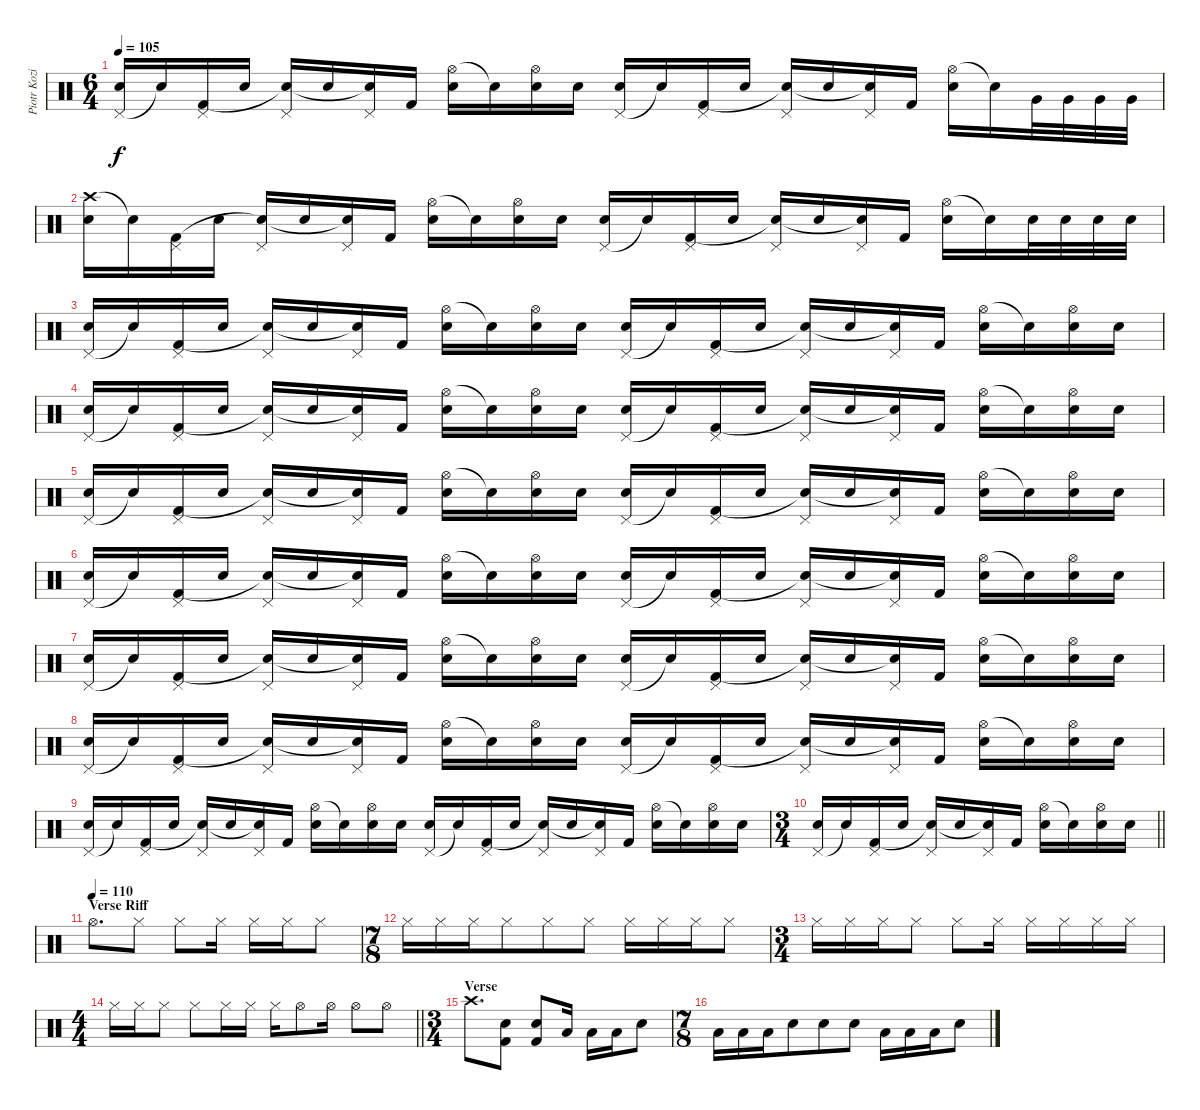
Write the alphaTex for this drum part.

\track ("Piotr Kozieradzki" "Piotr Kozi") {instrument percussion}
\staff {score}
\articulation defaults
\ts (6 4)
\tempo 105
\clef neutral
\ks c
("Pedal Hi-Hat (hit)" "Electric Snare (hit)").16{dy f} "Snare (hit)"{t}.16 ("Pedal Hi-Hat (hit)" "Kick (hit) 2").16 "Electric Snare (hit)".16 ("Pedal Hi-Hat (hit)" "Snare (hit)"{t}).16 "Electric Snare (hit)".16 ("Pedal Hi-Hat (hit)" "Snare (hit)"{t}).16 "Kick (hit) 2".16 ("Hi-Hat (open)" "Electric Snare (hit)").16 "Snare (hit)"{t}.16 ("Hi-Hat (open)" "Electric Snare (hit)").16 "Electric Snare (hit)".16 ("Pedal Hi-Hat (hit)" "Electric Snare (hit)").16 "Snare (hit)"{t}.16 ("Pedal Hi-Hat (hit)" "Kick (hit) 2").16 "Electric Snare (hit)".16 ("Pedal Hi-Hat (hit)" "Snare (hit)"{t}).16 "Electric Snare (hit)".16 ("Pedal Hi-Hat (hit)" "Snare (hit)"{t}).16 "Kick (hit) 2".16 ("Hi-Hat (open)" "Electric Snare (hit)").16 "Snare (hit)"{t}.16 "Very Low Tom (hit)".32 "Very Low Tom (hit)".32 "Very Low Tom (hit)".32 "Very Low Tom (hit)".32 |
("Crash high (hit)" "Electric Snare (hit)").16 "Snare (hit)"{t}.16 ("Pedal Hi-Hat (hit)" "Kick (hit) 2").16 "Electric Snare (hit)".16 ("Pedal Hi-Hat (hit)" "Snare (hit)"{t}).16 "Electric Snare (hit)".16 ("Pedal Hi-Hat (hit)" "Snare (hit)"{t}).16 "Kick (hit) 2".16 ("Hi-Hat (open)" "Electric Snare (hit)").16 "Snare (hit)"{t}.16 ("Hi-Hat (open)" "Electric Snare (hit)").16 "Electric Snare (hit)".16 ("Pedal Hi-Hat (hit)" "Electric Snare (hit)").16 "Snare (hit)"{t}.16 ("Pedal Hi-Hat (hit)" "Kick (hit) 2").16 "Electric Snare (hit)".16 ("Pedal Hi-Hat (hit)" "Snare (hit)"{t}).16 "Electric Snare (hit)".16 ("Pedal Hi-Hat (hit)" "Snare (hit)"{t}).16 "Kick (hit) 2".16 ("Hi-Hat (open)" "Electric Snare (hit)").16 "Snare (hit)"{t}.16 "Electric Snare (hit)".32 "Electric Snare (hit)".32 "Electric Snare (hit)".32 "Electric Snare (hit)".32 |
("Pedal Hi-Hat (hit)" "Electric Snare (hit)").16 "Snare (hit)"{t}.16 ("Pedal Hi-Hat (hit)" "Kick (hit) 2").16 "Electric Snare (hit)".16 ("Pedal Hi-Hat (hit)" "Snare (hit)"{t}).16 "Electric Snare (hit)".16 ("Pedal Hi-Hat (hit)" "Snare (hit)"{t}).16 "Kick (hit) 2".16 ("Hi-Hat (open)" "Electric Snare (hit)").16 "Snare (hit)"{t}.16 ("Hi-Hat (open)" "Electric Snare (hit)").16 "Electric Snare (hit)".16 ("Pedal Hi-Hat (hit)" "Electric Snare (hit)").16 "Snare (hit)"{t}.16 ("Pedal Hi-Hat (hit)" "Kick (hit) 2").16 "Electric Snare (hit)".16 ("Pedal Hi-Hat (hit)" "Snare (hit)"{t}).16 "Electric Snare (hit)".16 ("Pedal Hi-Hat (hit)" "Snare (hit)"{t}).16 "Kick (hit) 2".16 ("Hi-Hat (open)" "Electric Snare (hit)").16 "Snare (hit)"{t}.16 ("Hi-Hat (open)" "Electric Snare (hit)").16 "Electric Snare (hit)".16 |
("Pedal Hi-Hat (hit)" "Electric Snare (hit)").16 "Snare (hit)"{t}.16 ("Pedal Hi-Hat (hit)" "Kick (hit) 2").16 "Electric Snare (hit)".16 ("Pedal Hi-Hat (hit)" "Snare (hit)"{t}).16 "Electric Snare (hit)".16 ("Pedal Hi-Hat (hit)" "Snare (hit)"{t}).16 "Kick (hit) 2".16 ("Hi-Hat (open)" "Electric Snare (hit)").16 "Snare (hit)"{t}.16 ("Hi-Hat (open)" "Electric Snare (hit)").16 "Electric Snare (hit)".16 ("Pedal Hi-Hat (hit)" "Electric Snare (hit)").16 "Snare (hit)"{t}.16 ("Pedal Hi-Hat (hit)" "Kick (hit) 2").16 "Electric Snare (hit)".16 ("Pedal Hi-Hat (hit)" "Snare (hit)"{t}).16 "Electric Snare (hit)".16 ("Pedal Hi-Hat (hit)" "Snare (hit)"{t}).16 "Kick (hit) 2".16 ("Hi-Hat (open)" "Electric Snare (hit)").16 "Snare (hit)"{t}.16 ("Hi-Hat (open)" "Electric Snare (hit)").16 "Electric Snare (hit)".16 |
("Pedal Hi-Hat (hit)" "Electric Snare (hit)").16 "Snare (hit)"{t}.16 ("Pedal Hi-Hat (hit)" "Kick (hit) 2").16 "Electric Snare (hit)".16 ("Pedal Hi-Hat (hit)" "Snare (hit)"{t}).16 "Electric Snare (hit)".16 ("Pedal Hi-Hat (hit)" "Snare (hit)"{t}).16 "Kick (hit) 2".16 ("Hi-Hat (open)" "Electric Snare (hit)").16 "Snare (hit)"{t}.16 ("Hi-Hat (open)" "Electric Snare (hit)").16 "Electric Snare (hit)".16 ("Pedal Hi-Hat (hit)" "Electric Snare (hit)").16 "Snare (hit)"{t}.16 ("Pedal Hi-Hat (hit)" "Kick (hit) 2").16 "Electric Snare (hit)".16 ("Pedal Hi-Hat (hit)" "Snare (hit)"{t}).16 "Electric Snare (hit)".16 ("Pedal Hi-Hat (hit)" "Snare (hit)"{t}).16 "Kick (hit) 2".16 ("Hi-Hat (open)" "Electric Snare (hit)").16 "Snare (hit)"{t}.16 ("Hi-Hat (open)" "Electric Snare (hit)").16 "Electric Snare (hit)".16 |
("Pedal Hi-Hat (hit)" "Electric Snare (hit)").16 "Snare (hit)"{t}.16 ("Pedal Hi-Hat (hit)" "Kick (hit) 2").16 "Electric Snare (hit)".16 ("Pedal Hi-Hat (hit)" "Snare (hit)"{t}).16 "Electric Snare (hit)".16 ("Pedal Hi-Hat (hit)" "Snare (hit)"{t}).16 "Kick (hit) 2".16 ("Hi-Hat (open)" "Electric Snare (hit)").16 "Snare (hit)"{t}.16 ("Hi-Hat (open)" "Electric Snare (hit)").16 "Electric Snare (hit)".16 ("Pedal Hi-Hat (hit)" "Electric Snare (hit)").16 "Snare (hit)"{t}.16 ("Pedal Hi-Hat (hit)" "Kick (hit) 2").16 "Electric Snare (hit)".16 ("Pedal Hi-Hat (hit)" "Snare (hit)"{t}).16 "Electric Snare (hit)".16 ("Pedal Hi-Hat (hit)" "Snare (hit)"{t}).16 "Kick (hit) 2".16 ("Hi-Hat (open)" "Electric Snare (hit)").16 "Snare (hit)"{t}.16 ("Hi-Hat (open)" "Electric Snare (hit)").16 "Electric Snare (hit)".16 |
("Pedal Hi-Hat (hit)" "Electric Snare (hit)").16 "Snare (hit)"{t}.16 ("Pedal Hi-Hat (hit)" "Kick (hit) 2").16 "Electric Snare (hit)".16 ("Pedal Hi-Hat (hit)" "Snare (hit)"{t}).16 "Electric Snare (hit)".16 ("Pedal Hi-Hat (hit)" "Snare (hit)"{t}).16 "Kick (hit) 2".16 ("Hi-Hat (open)" "Electric Snare (hit)").16 "Snare (hit)"{t}.16 ("Hi-Hat (open)" "Electric Snare (hit)").16 "Electric Snare (hit)".16 ("Pedal Hi-Hat (hit)" "Electric Snare (hit)").16 "Snare (hit)"{t}.16 ("Pedal Hi-Hat (hit)" "Kick (hit) 2").16 "Electric Snare (hit)".16 ("Pedal Hi-Hat (hit)" "Snare (hit)"{t}).16 "Electric Snare (hit)".16 ("Pedal Hi-Hat (hit)" "Snare (hit)"{t}).16 "Kick (hit) 2".16 ("Hi-Hat (open)" "Electric Snare (hit)").16 "Snare (hit)"{t}.16 ("Hi-Hat (open)" "Electric Snare (hit)").16 "Electric Snare (hit)".16 |
("Pedal Hi-Hat (hit)" "Electric Snare (hit)").16 "Snare (hit)"{t}.16 ("Pedal Hi-Hat (hit)" "Kick (hit) 2").16 "Electric Snare (hit)".16 ("Pedal Hi-Hat (hit)" "Snare (hit)"{t}).16 "Electric Snare (hit)".16 ("Pedal Hi-Hat (hit)" "Snare (hit)"{t}).16 "Kick (hit) 2".16 ("Hi-Hat (open)" "Electric Snare (hit)").16 "Snare (hit)"{t}.16 ("Hi-Hat (open)" "Electric Snare (hit)").16 "Electric Snare (hit)".16 ("Pedal Hi-Hat (hit)" "Electric Snare (hit)").16 "Snare (hit)"{t}.16 ("Pedal Hi-Hat (hit)" "Kick (hit) 2").16 "Electric Snare (hit)".16 ("Pedal Hi-Hat (hit)" "Snare (hit)"{t}).16 "Electric Snare (hit)".16 ("Pedal Hi-Hat (hit)" "Snare (hit)"{t}).16 "Kick (hit) 2".16 ("Hi-Hat (open)" "Electric Snare (hit)").16 "Snare (hit)"{t}.16 ("Hi-Hat (open)" "Electric Snare (hit)").16 "Electric Snare (hit)".16 |
("Pedal Hi-Hat (hit)" "Electric Snare (hit)").16 "Snare (hit)"{t}.16 ("Pedal Hi-Hat (hit)" "Kick (hit) 2").16 "Electric Snare (hit)".16 ("Pedal Hi-Hat (hit)" "Snare (hit)"{t}).16 "Electric Snare (hit)".16 ("Pedal Hi-Hat (hit)" "Snare (hit)"{t}).16 "Kick (hit) 2".16 ("Hi-Hat (open)" "Electric Snare (hit)").16 "Snare (hit)"{t}.16 ("Hi-Hat (open)" "Electric Snare (hit)").16 "Electric Snare (hit)".16 ("Pedal Hi-Hat (hit)" "Electric Snare (hit)").16 "Snare (hit)"{t}.16 ("Pedal Hi-Hat (hit)" "Kick (hit) 2").16 "Electric Snare (hit)".16 ("Pedal Hi-Hat (hit)" "Snare (hit)"{t}).16 "Electric Snare (hit)".16 ("Pedal Hi-Hat (hit)" "Snare (hit)"{t}).16 "Kick (hit) 2".16 ("Hi-Hat (open)" "Electric Snare (hit)").16 "Snare (hit)"{t}.16 ("Hi-Hat (open)" "Electric Snare (hit)").16 "Electric Snare (hit)".16 |
\ts (3 4)
\barLineRight lightlight
("Pedal Hi-Hat (hit)" "Electric Snare (hit)").16 "Snare (hit)"{t}.16 ("Pedal Hi-Hat (hit)" "Kick (hit) 2").16 "Electric Snare (hit)".16 ("Pedal Hi-Hat (hit)" "Snare (hit)"{t}).16 "Electric Snare (hit)".16 ("Pedal Hi-Hat (hit)" "Snare (hit)"{t}).16 "Kick (hit) 2".16 ("Hi-Hat (open)" "Electric Snare (hit)").16 "Snare (hit)"{t}.16 ("Hi-Hat (open)" "Electric Snare (hit)").16 "Electric Snare (hit)".16 |
\section ("" "Verse Riff")
\tempo (110)
"Hi-Hat (open)".8{d} "Hi-Hat (closed)".8 "Hi-Hat (closed)".8 "Hi-Hat (closed)".16 "Hi-Hat (closed)".16 "Hi-Hat (closed)".16 "Hi-Hat (closed)".8 |
\ts (7 8)
"Hi-Hat (closed)".16 "Hi-Hat (closed)".16 "Hi-Hat (closed)".16 "Hi-Hat (closed)".8 "Hi-Hat (closed)".8 "Hi-Hat (closed)".8 "Hi-Hat (closed)".16 "Hi-Hat (closed)".16 "Hi-Hat (closed)".16 "Hi-Hat (closed)".8 |
\ts (3 4)
"Hi-Hat (closed)".16 "Hi-Hat (closed)".16 "Hi-Hat (closed)".16 "Hi-Hat (closed)".8 "Hi-Hat (closed)".8 "Hi-Hat (closed)".16 "Hi-Hat (closed)".16 "Hi-Hat (closed)".16 "Hi-Hat (closed)".16 "Hi-Hat (closed)".16 |
\ts (4 4)
\barLineRight lightlight "Hi-Hat (closed)".16 "Hi-Hat (closed)".16 "Hi-Hat (closed)".8 "Hi-Hat (closed)".8 "Hi-Hat (closed)".16 "Hi-Hat (closed)".16 "Hi-Hat (closed)".16 "Hi-Hat (open)".8 "Hi-Hat (open)".16 "Hi-Hat (open)".8 "Hi-Hat (open)".8
|
\ts (3 4)
\section ("" "Verse")
"Crash high (hit)".8{d} ("Electric Snare (hit)" "Kick (hit) 2").8 ("Electric Snare (hit)" "Kick (hit) 2").8 "Low Tom (hit)".16 "Low Tom (hit)".16 "Low Tom (hit)".16 "Electric Snare (hit)".8 |
\ts (7 8)
"Low Tom (hit)".16 "Low Tom (hit)".16 "Low Tom (hit)".16 "Electric Snare (hit)".8 "Electric Snare (hit)".8 "Electric Snare (hit)".8 "Low Tom (hit)".16 "Low Tom (hit)".16 "Low Tom (hit)".16 "Electric Snare (hit)".8
